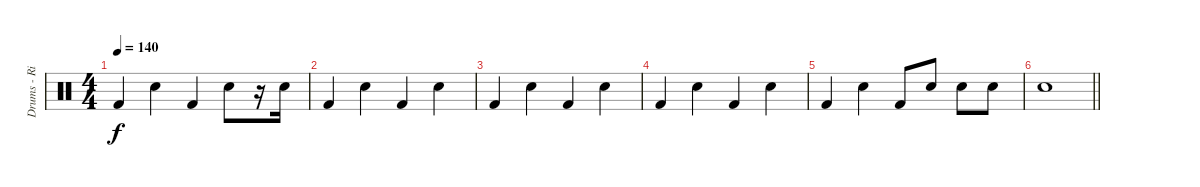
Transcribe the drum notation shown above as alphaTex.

\track ("Drums - Richard Thomas" "Drums - Ri") {instrument percussion}
\staff {score}
\articulation defaults
\ts (4 4)
\tempo 140
\clef neutral
\ks c "Kick (hit) 2".4{dy f} "Electric Snare (hit)".4 "Kick (hit) 2".4 "Electric Snare (hit)".8
r.16 "Electric Snare (hit)".16 |
"Kick (hit) 2".4 "Electric Snare (hit)".4 "Kick (hit) 2".4 "Electric Snare (hit)".4 |
"Kick (hit) 2".4 "Electric Snare (hit)".4 "Kick (hit) 2".4 "Electric Snare (hit)".4 |
"Kick (hit) 2".4 "Electric Snare (hit)".4 "Kick (hit) 2".4 "Electric Snare (hit)".4 |
"Kick (hit) 2".4 "Electric Snare (hit)".4 "Kick (hit) 2".8 "Electric Snare (hit)".8 "Electric Snare (hit)".8 "Electric Snare (hit)".8 |
\barLineRight lightlight "Electric Snare (hit)".1
